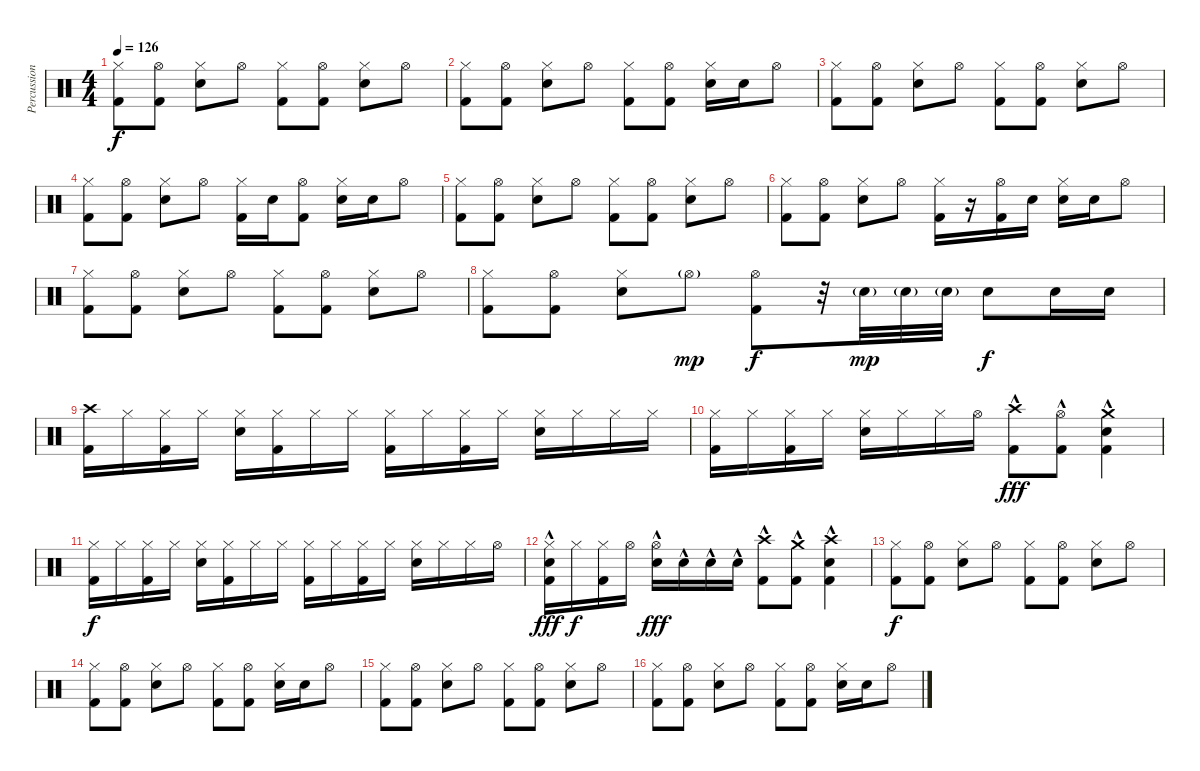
\track ("Percussion" "Percussion") {instrument percussion}
\staff {score}
\articulation defaults
\ts (4 4)
\tempo 126
\clef neutral
\ks c
("Hi-Hat (closed)" "Kick (hit) 2").8{dy f} ("Hi-Hat (open)" "Kick (hit) 2").8 ("Hi-Hat (closed)" "Electric Snare (hit)").8 "Hi-Hat (open)".8 ("Hi-Hat (closed)" "Kick (hit) 2").8 ("Hi-Hat (open)" "Kick (hit) 2").8 ("Hi-Hat (closed)" "Electric Snare (hit)").8 "Hi-Hat (open)".8 |
("Hi-Hat (closed)" "Kick (hit) 2").8 ("Hi-Hat (open)" "Kick (hit) 2").8 ("Hi-Hat (closed)" "Electric Snare (hit)").8 "Hi-Hat (open)".8 ("Hi-Hat (closed)" "Kick (hit) 2").8 ("Hi-Hat (open)" "Kick (hit) 2").8 ("Hi-Hat (closed)" "Electric Snare (hit)").16 "Electric Snare (hit)".16 "Hi-Hat (open)".8 |
("Hi-Hat (closed)" "Kick (hit) 2").8 ("Hi-Hat (open)" "Kick (hit) 2").8 ("Hi-Hat (closed)" "Electric Snare (hit)").8 "Hi-Hat (open)".8 ("Hi-Hat (closed)" "Kick (hit) 2").8 ("Hi-Hat (open)" "Kick (hit) 2").8 ("Hi-Hat (closed)" "Electric Snare (hit)").8 "Hi-Hat (open)".8 |
("Hi-Hat (closed)" "Kick (hit) 2").8 ("Hi-Hat (open)" "Kick (hit) 2").8 ("Hi-Hat (closed)" "Electric Snare (hit)").8 "Hi-Hat (open)".8 ("Hi-Hat (closed)" "Kick (hit) 2").16 "Electric Snare (hit)".16 ("Hi-Hat (open)" "Kick (hit) 2").8 ("Hi-Hat (closed)" "Electric Snare (hit)").16 "Electric Snare (hit)".16 "Hi-Hat (open)".8 |
("Hi-Hat (closed)" "Kick (hit) 2").8 ("Hi-Hat (open)" "Kick (hit) 2").8 ("Hi-Hat (closed)" "Electric Snare (hit)").8 "Hi-Hat (open)".8 ("Hi-Hat (closed)" "Kick (hit) 2").8 ("Hi-Hat (open)" "Kick (hit) 2").8 ("Hi-Hat (closed)" "Electric Snare (hit)").8 "Hi-Hat (open)".8 |
("Hi-Hat (closed)" "Kick (hit) 2").8 ("Hi-Hat (open)" "Kick (hit) 2").8 ("Hi-Hat (closed)" "Electric Snare (hit)").8 "Hi-Hat (open)".8 ("Hi-Hat (closed)" "Kick (hit) 2").16 r.16 ("Hi-Hat (open)" "Kick (hit) 2").16 "Electric Snare (hit)".16 ("Hi-Hat (closed)" "Electric Snare (hit)").16 "Electric Snare (hit)".16 "Hi-Hat (open)".8 |
("Hi-Hat (closed)" "Kick (hit) 2").8 ("Hi-Hat (open)" "Kick (hit) 2").8 ("Hi-Hat (closed)" "Electric Snare (hit)").8 "Hi-Hat (open)".8 ("Hi-Hat (closed)" "Kick (hit) 2").8 ("Hi-Hat (open)" "Kick (hit) 2").8 ("Hi-Hat (closed)" "Electric Snare (hit)").8 "Hi-Hat (open)".8 |
("Hi-Hat (closed)" "Kick (hit) 2").8{beam merge} ("Hi-Hat (open)" "Kick (hit) 2").8 ("Hi-Hat (closed)" "Electric Snare (hit)").8 "Hi-Hat (open)"{g}.8{dy mp} ("Hi-Hat (open)" "Kick (hit) 2").8{dy f} r.32 "Electric Snare (hit)"{g}.32{dy mp} "Electric Snare (hit)"{g}.32 "Electric Snare (hit)"{g}.32 "Electric Snare (hit)".8{dy f} "Electric Snare (hit)".16 "Electric Snare (hit)".16 |
("Crash high (hit)" "Kick (hit) 2").16 "Hi-Hat (closed)".16 ("Hi-Hat (closed)" "Kick (hit) 2").16 "Hi-Hat (closed)".16 ("Hi-Hat (closed)" "Electric Snare (hit)").16 ("Hi-Hat (closed)" "Kick (hit) 2").16 "Hi-Hat (closed)".16 "Hi-Hat (closed)".16 ("Hi-Hat (closed)" "Kick (hit) 2").16 "Hi-Hat (closed)".16 ("Hi-Hat (closed)" "Kick (hit) 2").16 "Hi-Hat (closed)".16 ("Hi-Hat (closed)" "Electric Snare (hit)").16 "Hi-Hat (closed)".16 "Hi-Hat (closed)".16 "Hi-Hat (closed)".16 |
("Hi-Hat (closed)" "Kick (hit) 2").16 "Hi-Hat (closed)".16 ("Hi-Hat (closed)" "Kick (hit) 2").16 "Hi-Hat (closed)".16 ("Hi-Hat (closed)" "Electric Snare (hit)").16 "Hi-Hat (closed)".16 "Hi-Hat (closed)".16 "Hi-Hat (open)".16 ("Crash high (hit)"{hac} "Kick (hit) 2").8{dy fff} ("Hi-Hat (open)"{hac} "Kick (hit) 2").8 ("Crash medium (hit)"{hac} "Electric Snare (hit)"{hac} "Kick (hit) 2").4 |
("Hi-Hat (closed)" "Kick (hit) 2").16{dy f} "Hi-Hat (closed)".16 ("Hi-Hat (closed)" "Kick (hit) 2").16 "Hi-Hat (closed)".16 ("Hi-Hat (closed)" "Electric Snare (hit)").16 ("Hi-Hat (closed)" "Kick (hit) 2").16 "Hi-Hat (closed)".16 "Hi-Hat (closed)".16 ("Hi-Hat (closed)" "Kick (hit) 2").16 "Hi-Hat (closed)".16 ("Hi-Hat (closed)" "Kick (hit) 2").16 "Hi-Hat (closed)".16 ("Hi-Hat (closed)" "Electric Snare (hit)").16 "Hi-Hat (closed)".16 "Hi-Hat (closed)".16 "Hi-Hat (open)".16 |
("Hi-Hat (closed)" "Electric Snare (hit)"{hac} "Kick (hit) 2").16{dy fff} "Hi-Hat (closed)".16{dy f} ("Hi-Hat (closed)" "Kick (hit) 2").16 "Hi-Hat (open)".16 ("Hi-Hat (open)" "Electric Snare (hit)"{hac}).16{dy fff} "Electric Snare (hit)"{hac}.16 "Electric Snare (hit)"{hac}.16 "Electric Snare (hit)"{hac}.16 ("Crash high (hit)"{hac} "Kick (hit) 2").8 ("Crash medium (hit)"{hac} "Kick (hit) 2").8 ("Crash high (hit)"{hac} "Electric Snare (hit)" "Kick (hit) 2").4 |
("Hi-Hat (closed)" "Kick (hit) 2").8{dy f} ("Hi-Hat (open)" "Kick (hit) 2").8 ("Hi-Hat (closed)" "Electric Snare (hit)").8 "Hi-Hat (open)".8 ("Hi-Hat (closed)" "Kick (hit) 2").8 ("Hi-Hat (open)" "Kick (hit) 2").8 ("Hi-Hat (closed)" "Electric Snare (hit)").8 "Hi-Hat (open)".8 |
("Hi-Hat (closed)" "Kick (hit) 2").8 ("Hi-Hat (open)" "Kick (hit) 2").8 ("Hi-Hat (closed)" "Electric Snare (hit)").8 "Hi-Hat (open)".8 ("Hi-Hat (closed)" "Kick (hit) 2").8 ("Hi-Hat (open)" "Kick (hit) 2").8 ("Hi-Hat (closed)" "Electric Snare (hit)").16 "Electric Snare (hit)".16 "Hi-Hat (open)".8 |
("Hi-Hat (closed)" "Kick (hit) 2").8 ("Hi-Hat (open)" "Kick (hit) 2").8 ("Hi-Hat (closed)" "Electric Snare (hit)").8 "Hi-Hat (open)".8 ("Hi-Hat (closed)" "Kick (hit) 2").8 ("Hi-Hat (open)" "Kick (hit) 2").8 ("Hi-Hat (closed)" "Electric Snare (hit)").8 "Hi-Hat (open)".8 |
("Hi-Hat (closed)" "Kick (hit) 2").8 ("Hi-Hat (open)" "Kick (hit) 2").8 ("Hi-Hat (closed)" "Electric Snare (hit)").8 "Hi-Hat (open)".8 ("Hi-Hat (closed)" "Kick (hit) 2").8 ("Hi-Hat (open)" "Kick (hit) 2").8 ("Hi-Hat (closed)" "Electric Snare (hit)").16 "Electric Snare (hit)".16 "Hi-Hat (open)".8
